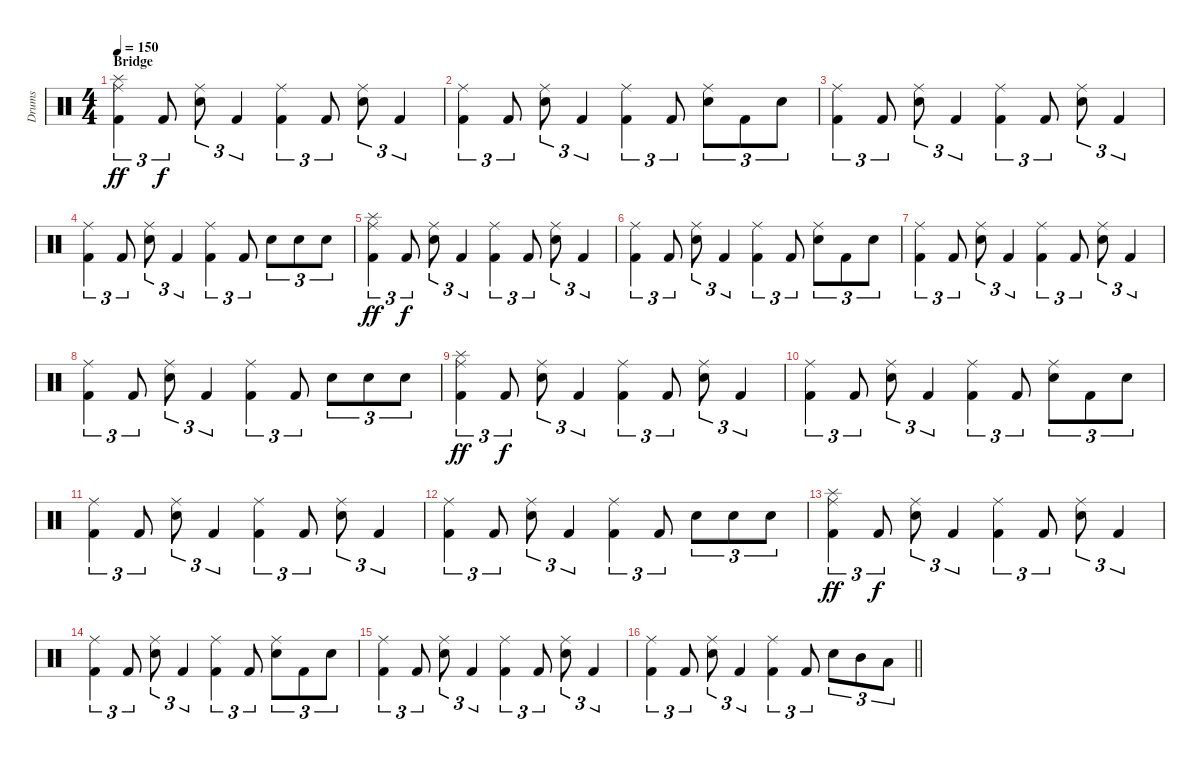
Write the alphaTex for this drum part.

\track ("Drums" "Drums") {instrument percussion}
\staff {score}
\articulation defaults
\ts (4 4)
\section ("" "Bridge")
\tempo 150
\clef neutral
\ks c
("Splash (hit)" "Ride (middle)" "Kick (hit) 2").4{tu (3 2) dy ff} "Kick (hit) 2".8{tu (3 2) dy f} ("Ride (middle)" "Electric Snare (hit)").8{tu (3 2)} "Kick (hit) 2".4{tu (3 2)} ("Ride (middle)" "Kick (hit) 2").4{tu (3 2)} "Kick (hit) 2".8{tu (3 2)} ("Ride (middle)" "Electric Snare (hit)").8{tu (3 2)} "Kick (hit) 2".4{tu (3 2)} |
("Ride (middle)" "Kick (hit) 2").4{tu (3 2)} "Kick (hit) 2".8{tu (3 2)} ("Ride (middle)" "Electric Snare (hit)").8{tu (3 2)} "Kick (hit) 2".4{tu (3 2)} ("Ride (middle)" "Kick (hit) 2").4{tu (3 2)} "Kick (hit) 2".8{tu (3 2)} ("Ride (middle)" "Electric Snare (hit)").8{tu (3 2)} "Kick (hit) 2".8{tu (3 2)} "Electric Snare (hit)".8{tu (3 2)} |
("Ride (middle)" "Kick (hit) 2").4{tu (3 2)} "Kick (hit) 2".8{tu (3 2)} ("Ride (middle)" "Electric Snare (hit)").8{tu (3 2)} "Kick (hit) 2".4{tu (3 2)} ("Ride (middle)" "Kick (hit) 2").4{tu (3 2)} "Kick (hit) 2".8{tu (3 2)} ("Ride (middle)" "Electric Snare (hit)").8{tu (3 2)} "Kick (hit) 2".4{tu (3 2)} |
("Ride (middle)" "Kick (hit) 2").4{tu (3 2)} "Kick (hit) 2".8{tu (3 2)} ("Ride (middle)" "Electric Snare (hit)").8{tu (3 2)} "Kick (hit) 2".4{tu (3 2)} ("Ride (middle)" "Kick (hit) 2").4{tu (3 2)} "Kick (hit) 2".8{tu (3 2)} "Electric Snare (hit)".8{tu (3 2)} "Electric Snare (hit)".8{tu (3 2)} "Electric Snare (hit)".8{tu (3 2)} |
("Splash (hit)" "Ride (middle)" "Kick (hit) 2").4{tu (3 2) dy ff} "Kick (hit) 2".8{tu (3 2) dy f} ("Ride (middle)" "Electric Snare (hit)").8{tu (3 2)} "Kick (hit) 2".4{tu (3 2)} ("Ride (middle)" "Kick (hit) 2").4{tu (3 2)} "Kick (hit) 2".8{tu (3 2)} ("Ride (middle)" "Electric Snare (hit)").8{tu (3 2)} "Kick (hit) 2".4{tu (3 2)} |
("Ride (middle)" "Kick (hit) 2").4{tu (3 2)} "Kick (hit) 2".8{tu (3 2)} ("Ride (middle)" "Electric Snare (hit)").8{tu (3 2)} "Kick (hit) 2".4{tu (3 2)} ("Ride (middle)" "Kick (hit) 2").4{tu (3 2)} "Kick (hit) 2".8{tu (3 2)} ("Ride (middle)" "Electric Snare (hit)").8{tu (3 2)} "Kick (hit) 2".8{tu (3 2)} "Electric Snare (hit)".8{tu (3 2)} |
("Ride (middle)" "Kick (hit) 2").4{tu (3 2)} "Kick (hit) 2".8{tu (3 2)} ("Ride (middle)" "Electric Snare (hit)").8{tu (3 2)} "Kick (hit) 2".4{tu (3 2)} ("Ride (middle)" "Kick (hit) 2").4{tu (3 2)} "Kick (hit) 2".8{tu (3 2)} ("Ride (middle)" "Electric Snare (hit)").8{tu (3 2)} "Kick (hit) 2".4{tu (3 2)} |
("Ride (middle)" "Kick (hit) 2").4{tu (3 2)} "Kick (hit) 2".8{tu (3 2)} ("Ride (middle)" "Electric Snare (hit)").8{tu (3 2)} "Kick (hit) 2".4{tu (3 2)} ("Ride (middle)" "Kick (hit) 2").4{tu (3 2)} "Kick (hit) 2".8{tu (3 2)} "Electric Snare (hit)".8{tu (3 2)} "Electric Snare (hit)".8{tu (3 2)} "Electric Snare (hit)".8{tu (3 2)} |
("Splash (hit)" "Ride (middle)" "Kick (hit) 2").4{tu (3 2) dy ff} "Kick (hit) 2".8{tu (3 2) dy f} ("Ride (middle)" "Electric Snare (hit)").8{tu (3 2)} "Kick (hit) 2".4{tu (3 2)} ("Ride (middle)" "Kick (hit) 2").4{tu (3 2)} "Kick (hit) 2".8{tu (3 2)} ("Ride (middle)" "Electric Snare (hit)").8{tu (3 2)} "Kick (hit) 2".4{tu (3 2)} |
("Ride (middle)" "Kick (hit) 2").4{tu (3 2)} "Kick (hit) 2".8{tu (3 2)} ("Ride (middle)" "Electric Snare (hit)").8{tu (3 2)} "Kick (hit) 2".4{tu (3 2)} ("Ride (middle)" "Kick (hit) 2").4{tu (3 2)} "Kick (hit) 2".8{tu (3 2)} ("Ride (middle)" "Electric Snare (hit)").8{tu (3 2)} "Kick (hit) 2".8{tu (3 2)} "Electric Snare (hit)".8{tu (3 2)} |
("Ride (middle)" "Kick (hit) 2").4{tu (3 2)} "Kick (hit) 2".8{tu (3 2)} ("Ride (middle)" "Electric Snare (hit)").8{tu (3 2)} "Kick (hit) 2".4{tu (3 2)} ("Ride (middle)" "Kick (hit) 2").4{tu (3 2)} "Kick (hit) 2".8{tu (3 2)} ("Ride (middle)" "Electric Snare (hit)").8{tu (3 2)} "Kick (hit) 2".4{tu (3 2)} |
("Ride (middle)" "Kick (hit) 2").4{tu (3 2)} "Kick (hit) 2".8{tu (3 2)} ("Ride (middle)" "Electric Snare (hit)").8{tu (3 2)} "Kick (hit) 2".4{tu (3 2)} ("Ride (middle)" "Kick (hit) 2").4{tu (3 2)} "Kick (hit) 2".8{tu (3 2)} "Electric Snare (hit)".8{tu (3 2)} "Electric Snare (hit)".8{tu (3 2)} "Electric Snare (hit)".8{tu (3 2)} |
("Splash (hit)" "Ride (middle)" "Kick (hit) 2").4{tu (3 2) dy ff} "Kick (hit) 2".8{tu (3 2) dy f} ("Ride (middle)" "Electric Snare (hit)").8{tu (3 2)} "Kick (hit) 2".4{tu (3 2)} ("Ride (middle)" "Kick (hit) 2").4{tu (3 2)} "Kick (hit) 2".8{tu (3 2)} ("Ride (middle)" "Electric Snare (hit)").8{tu (3 2)} "Kick (hit) 2".4{tu (3 2)} |
("Ride (middle)" "Kick (hit) 2").4{tu (3 2)} "Kick (hit) 2".8{tu (3 2)} ("Ride (middle)" "Electric Snare (hit)").8{tu (3 2)} "Kick (hit) 2".4{tu (3 2)} ("Ride (middle)" "Kick (hit) 2").4{tu (3 2)} "Kick (hit) 2".8{tu (3 2)} ("Ride (middle)" "Electric Snare (hit)").8{tu (3 2)} "Kick (hit) 2".8{tu (3 2)} "Electric Snare (hit)".8{tu (3 2)} |
("Ride (middle)" "Kick (hit) 2").4{tu (3 2)} "Kick (hit) 2".8{tu (3 2)} ("Ride (middle)" "Electric Snare (hit)").8{tu (3 2)} "Kick (hit) 2".4{tu (3 2)} ("Ride (middle)" "Kick (hit) 2").4{tu (3 2)} "Kick (hit) 2".8{tu (3 2)} ("Ride (middle)" "Electric Snare (hit)").8{tu (3 2)} "Kick (hit) 2".4{tu (3 2)} |
\barLineRight lightlight
("Ride (middle)" "Kick (hit) 2").4{tu (3 2)} "Kick (hit) 2".8{tu (3 2)} ("Ride (middle)" "Electric Snare (hit)").8{tu (3 2)} "Kick (hit) 2".4{tu (3 2)} ("Ride (middle)" "Kick (hit) 2").4{tu (3 2)} "Kick (hit) 2".8{tu (3 2)} "Electric Snare (hit)".8{tu (3 2)} "Mid Tom (hit)".8{tu (3 2)} "Low Tom (hit)".8{tu (3 2)}
